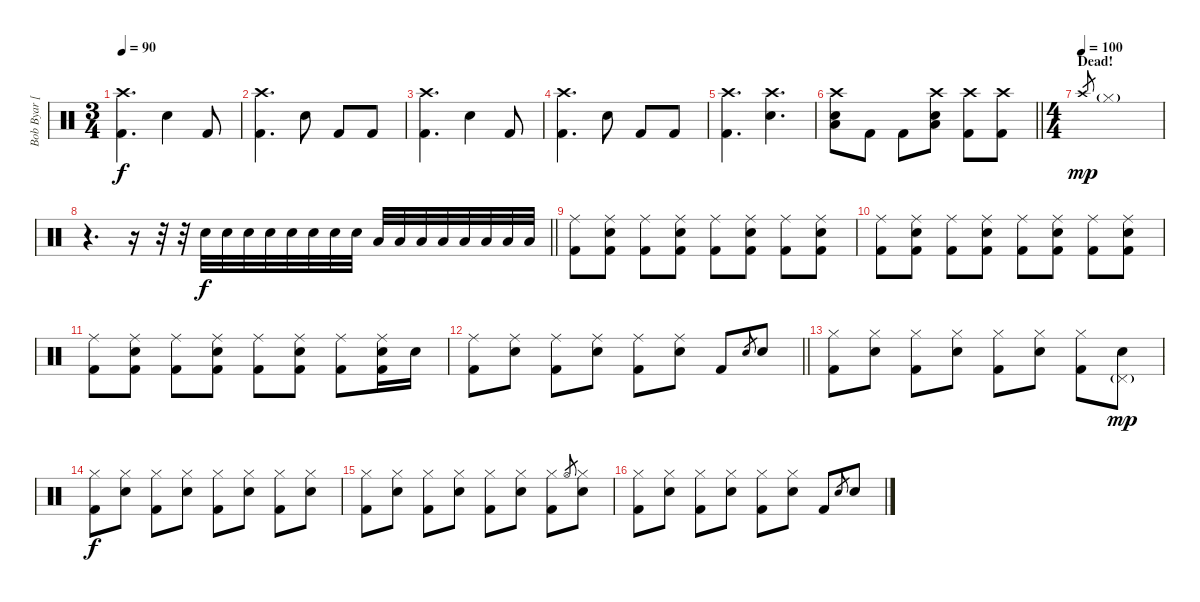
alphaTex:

\track ("Bob Byar [Drums]" "Bob Byar [") {instrument percussion}
\staff {score}
\articulation defaults
\ts (3 4)
\tempo 90
\clef neutral
\ks c
("Crash high (hit)" "Kick (hit) 2").4{d dy f} "Electric Snare (hit)".4 "Kick (hit) 2".8 |
("Crash high (hit)" "Kick (hit) 2").4{d} "Electric Snare (hit)".8 "Kick (hit) 2".8 "Kick (hit) 2".8 |
("Crash high (hit)" "Kick (hit) 2").4{d} "Electric Snare (hit)".4 "Kick (hit) 2".8 |
("Crash high (hit)" "Kick (hit) 2").4{d} "Electric Snare (hit)".8 "Kick (hit) 2".8 "Kick (hit) 2".8 |
("Crash high (hit)" "Kick (hit) 2").4{d} ("Crash high (hit)" "Electric Snare (hit)").4{d} |
\barLineRight lightlight
("Crash high (hit)" "Electric Snare (hit)" "Low Floor Tom (hit)").8 "Kick (hit) 2".8 "Kick (hit) 2".8 ("Crash high (hit)" "Electric Snare (hit)" "Low Floor Tom (hit)").8 ("Crash high (hit)" "Kick (hit) 2").8 ("Crash high (hit)" "Kick (hit) 2").8 |
\ts (4 4)
\section ("" "Dead!")
\tempo (100)
"Crash high (hit)".8{gr dy mp} "Hi-Hat (closed)"{g}.1 |
\barLineRight lightlight
r.4{d} r.16 r.32 r.32 "Electric Snare (hit)".32{dy f} "Electric Snare (hit)".32 "Electric Snare (hit)".32 "Electric Snare (hit)".32 "Electric Snare (hit)".32 "Electric Snare (hit)".32 "Electric Snare (hit)".32 "Electric Snare (hit)".32 "Low Tom (hit)".32 "Low Tom (hit)".32 "Low Tom (hit)".32 "Low Tom (hit)".32 "Low Tom (hit)".32 "Low Tom (hit)".32 "Low Tom (hit)".32 "Low Tom (hit)".32 |
("Ride (middle)" "Kick (hit) 2").8 ("Ride (middle)" "Electric Snare (hit)" "Kick (hit) 2").8 ("Ride (middle)" "Kick (hit) 2").8 ("Ride (middle)" "Electric Snare (hit)" "Kick (hit) 2").8 ("Ride (middle)" "Kick (hit) 2").8 ("Ride (middle)" "Electric Snare (hit)" "Kick (hit) 2").8 ("Ride (middle)" "Kick (hit) 2").8 ("Ride (middle)" "Electric Snare (hit)" "Kick (hit) 2").8 |
("Ride (middle)" "Kick (hit) 2").8 ("Ride (middle)" "Electric Snare (hit)" "Kick (hit) 2").8 ("Ride (middle)" "Kick (hit) 2").8 ("Ride (middle)" "Electric Snare (hit)" "Kick (hit) 2").8 ("Ride (middle)" "Kick (hit) 2").8 ("Ride (middle)" "Electric Snare (hit)" "Kick (hit) 2").8 ("Ride (middle)" "Kick (hit) 2").8 ("Ride (middle)" "Electric Snare (hit)" "Kick (hit) 2").8 |
("Ride (middle)" "Kick (hit) 2").8 ("Ride (middle)" "Electric Snare (hit)" "Kick (hit) 2").8 ("Ride (middle)" "Kick (hit) 2").8 ("Ride (middle)" "Electric Snare (hit)" "Kick (hit) 2").8 ("Ride (middle)" "Kick (hit) 2").8 ("Ride (middle)" "Electric Snare (hit)" "Kick (hit) 2").8 ("Ride (middle)" "Kick (hit) 2").8 ("Ride (middle)" "Electric Snare (hit)" "Kick (hit) 2").16 "Electric Snare (hit)".16 |
\barLineRight lightlight
("Ride (middle)" "Kick (hit) 2").8 ("Ride (middle)" "Electric Snare (hit)").8 ("Ride (middle)" "Kick (hit) 2").8 ("Ride (middle)" "Electric Snare (hit)").8 ("Ride (middle)" "Kick (hit) 2").8 ("Ride (middle)" "Electric Snare (hit)").8 "Kick (hit) 2".8 "Electric Snare (hit)".8{gr} "Electric Snare (hit)".8 |
("Hi-Hat (closed)" "Kick (hit) 2").8 ("Hi-Hat (closed)" "Electric Snare (hit)").8 ("Hi-Hat (closed)" "Kick (hit) 2").8 ("Hi-Hat (closed)" "Electric Snare (hit)").8 ("Hi-Hat (closed)" "Kick (hit) 2").8 ("Hi-Hat (closed)" "Electric Snare (hit)").8 ("Hi-Hat (closed)" "Kick (hit) 2").8 ("Pedal Hi-Hat (hit)"{g} "Electric Snare (hit)").8{dy mp} |
("Hi-Hat (closed)" "Kick (hit) 2").8{dy f} ("Hi-Hat (closed)" "Electric Snare (hit)").8 ("Hi-Hat (closed)" "Kick (hit) 2").8 ("Hi-Hat (closed)" "Electric Snare (hit)").8 ("Hi-Hat (closed)" "Kick (hit) 2").8 ("Hi-Hat (closed)" "Electric Snare (hit)").8 ("Hi-Hat (closed)" "Kick (hit) 2").8 ("Hi-Hat (closed)" "Electric Snare (hit)").8 |
("Hi-Hat (closed)" "Kick (hit) 2").8 ("Hi-Hat (closed)" "Electric Snare (hit)").8 ("Hi-Hat (closed)" "Kick (hit) 2").8 ("Hi-Hat (closed)" "Electric Snare (hit)").8 ("Hi-Hat (closed)" "Kick (hit) 2").8 ("Hi-Hat (closed)" "Electric Snare (hit)").8 ("Hi-Hat (closed)" "Kick (hit) 2").8 "Hi-Hat (open)".8{gr} ("Hi-Hat (closed)" "Electric Snare (hit)").8 |
("Hi-Hat (closed)" "Kick (hit) 2").8 ("Hi-Hat (closed)" "Electric Snare (hit)").8 ("Hi-Hat (closed)" "Kick (hit) 2").8 ("Hi-Hat (closed)" "Electric Snare (hit)").8 ("Hi-Hat (closed)" "Kick (hit) 2").8 ("Hi-Hat (closed)" "Electric Snare (hit)").8 "Kick (hit) 2".8 "Electric Snare (hit)".8{gr} "Electric Snare (hit)".8
